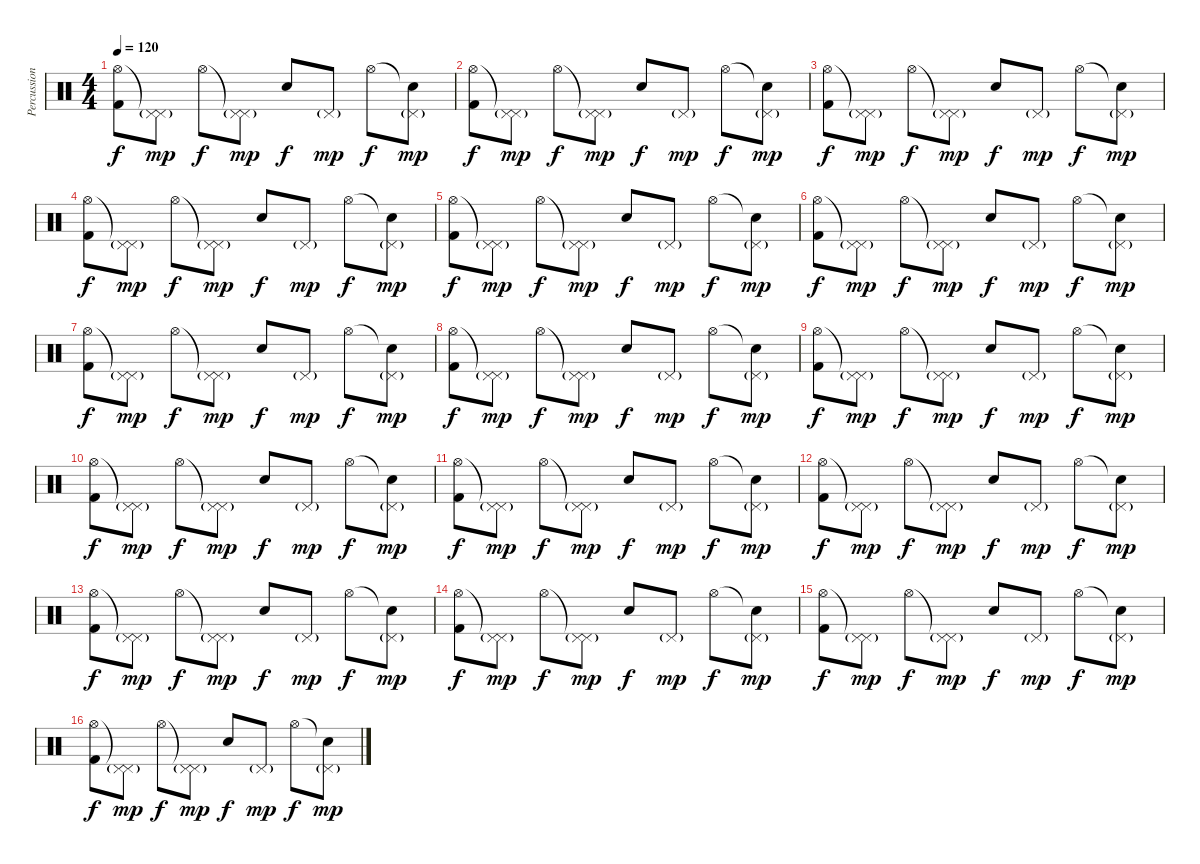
\track ("Percussion" "Percussion") {instrument percussion}
\staff {score}
\articulation defaults
\ts (4 4)
\tempo 120
\clef neutral
\ks c
("Hi-Hat (open)" "Kick (hit) 2").8{dy f} ("Pedal Hi-Hat (hit)"{t} "Pedal Hi-Hat (hit)"{g}).8{dy mp} "Hi-Hat (open)".8{dy f} ("Pedal Hi-Hat (hit)"{t} "Pedal Hi-Hat (hit)"{g}).8{dy mp} "Snare (hit) 2".8{dy f} "Pedal Hi-Hat (hit)"{g}.8{dy mp} "Hi-Hat (open)".8{dy f} ("Snare (hit)"{t} "Pedal Hi-Hat (hit)"{g}).8{dy mp} |
("Hi-Hat (open)" "Kick (hit) 2").8{dy f} ("Pedal Hi-Hat (hit)"{t} "Pedal Hi-Hat (hit)"{g}).8{dy mp} "Hi-Hat (open)".8{dy f} ("Pedal Hi-Hat (hit)"{t} "Pedal Hi-Hat (hit)"{g}).8{dy mp} "Snare (hit) 2".8{dy f} "Pedal Hi-Hat (hit)"{g}.8{dy mp} "Hi-Hat (open)".8{dy f} ("Snare (hit)"{t} "Pedal Hi-Hat (hit)"{g}).8{dy mp} |
("Hi-Hat (open)" "Kick (hit) 2").8{dy f} ("Pedal Hi-Hat (hit)"{t} "Pedal Hi-Hat (hit)"{g}).8{dy mp} "Hi-Hat (open)".8{dy f} ("Pedal Hi-Hat (hit)"{t} "Pedal Hi-Hat (hit)"{g}).8{dy mp} "Snare (hit) 2".8{dy f} "Pedal Hi-Hat (hit)"{g}.8{dy mp} "Hi-Hat (open)".8{dy f} ("Snare (hit)"{t} "Pedal Hi-Hat (hit)"{g}).8{dy mp} |
("Hi-Hat (open)" "Kick (hit) 2").8{dy f} ("Pedal Hi-Hat (hit)"{t} "Pedal Hi-Hat (hit)"{g}).8{dy mp} "Hi-Hat (open)".8{dy f} ("Pedal Hi-Hat (hit)"{t} "Pedal Hi-Hat (hit)"{g}).8{dy mp} "Snare (hit) 2".8{dy f} "Pedal Hi-Hat (hit)"{g}.8{dy mp} "Hi-Hat (open)".8{dy f} ("Snare (hit)"{t} "Pedal Hi-Hat (hit)"{g}).8{dy mp} |
("Hi-Hat (open)" "Kick (hit) 2").8{dy f} ("Pedal Hi-Hat (hit)"{t} "Pedal Hi-Hat (hit)"{g}).8{dy mp} "Hi-Hat (open)".8{dy f} ("Pedal Hi-Hat (hit)"{t} "Pedal Hi-Hat (hit)"{g}).8{dy mp} "Snare (hit) 2".8{dy f} "Pedal Hi-Hat (hit)"{g}.8{dy mp} "Hi-Hat (open)".8{dy f} ("Snare (hit)"{t} "Pedal Hi-Hat (hit)"{g}).8{dy mp} |
("Hi-Hat (open)" "Kick (hit) 2").8{dy f} ("Pedal Hi-Hat (hit)"{t} "Pedal Hi-Hat (hit)"{g}).8{dy mp} "Hi-Hat (open)".8{dy f} ("Pedal Hi-Hat (hit)"{t} "Pedal Hi-Hat (hit)"{g}).8{dy mp} "Snare (hit) 2".8{dy f} "Pedal Hi-Hat (hit)"{g}.8{dy mp} "Hi-Hat (open)".8{dy f} ("Snare (hit)"{t} "Pedal Hi-Hat (hit)"{g}).8{dy mp} |
("Hi-Hat (open)" "Kick (hit) 2").8{dy f} ("Pedal Hi-Hat (hit)"{t} "Pedal Hi-Hat (hit)"{g}).8{dy mp} "Hi-Hat (open)".8{dy f} ("Pedal Hi-Hat (hit)"{t} "Pedal Hi-Hat (hit)"{g}).8{dy mp} "Snare (hit) 2".8{dy f} "Pedal Hi-Hat (hit)"{g}.8{dy mp} "Hi-Hat (open)".8{dy f} ("Snare (hit)"{t} "Pedal Hi-Hat (hit)"{g}).8{dy mp} |
("Hi-Hat (open)" "Kick (hit) 2").8{dy f} ("Pedal Hi-Hat (hit)"{t} "Pedal Hi-Hat (hit)"{g}).8{dy mp} "Hi-Hat (open)".8{dy f} ("Pedal Hi-Hat (hit)"{t} "Pedal Hi-Hat (hit)"{g}).8{dy mp} "Snare (hit) 2".8{dy f} "Pedal Hi-Hat (hit)"{g}.8{dy mp} "Hi-Hat (open)".8{dy f} ("Snare (hit)"{t} "Pedal Hi-Hat (hit)"{g}).8{dy mp} |
("Hi-Hat (open)" "Kick (hit) 2").8{dy f} ("Pedal Hi-Hat (hit)"{t} "Pedal Hi-Hat (hit)"{g}).8{dy mp} "Hi-Hat (open)".8{dy f} ("Pedal Hi-Hat (hit)"{t} "Pedal Hi-Hat (hit)"{g}).8{dy mp} "Snare (hit) 2".8{dy f} "Pedal Hi-Hat (hit)"{g}.8{dy mp} "Hi-Hat (open)".8{dy f} ("Snare (hit)"{t} "Pedal Hi-Hat (hit)"{g}).8{dy mp} |
("Hi-Hat (open)" "Kick (hit) 2").8{dy f} ("Pedal Hi-Hat (hit)"{t} "Pedal Hi-Hat (hit)"{g}).8{dy mp} "Hi-Hat (open)".8{dy f} ("Pedal Hi-Hat (hit)"{t} "Pedal Hi-Hat (hit)"{g}).8{dy mp} "Snare (hit) 2".8{dy f} "Pedal Hi-Hat (hit)"{g}.8{dy mp} "Hi-Hat (open)".8{dy f} ("Snare (hit)"{t} "Pedal Hi-Hat (hit)"{g}).8{dy mp} |
("Hi-Hat (open)" "Kick (hit) 2").8{dy f} ("Pedal Hi-Hat (hit)"{t} "Pedal Hi-Hat (hit)"{g}).8{dy mp} "Hi-Hat (open)".8{dy f} ("Pedal Hi-Hat (hit)"{t} "Pedal Hi-Hat (hit)"{g}).8{dy mp} "Snare (hit) 2".8{dy f} "Pedal Hi-Hat (hit)"{g}.8{dy mp} "Hi-Hat (open)".8{dy f} ("Snare (hit)"{t} "Pedal Hi-Hat (hit)"{g}).8{dy mp} |
("Hi-Hat (open)" "Kick (hit) 2").8{dy f volume 11} ("Pedal Hi-Hat (hit)"{t} "Pedal Hi-Hat (hit)"{g}).8{dy mp} "Hi-Hat (open)".8{dy f} ("Pedal Hi-Hat (hit)"{t} "Pedal Hi-Hat (hit)"{g}).8{dy mp} "Snare (hit) 2".8{dy f} "Pedal Hi-Hat (hit)"{g}.8{dy mp} "Hi-Hat (open)".8{dy f} ("Snare (hit)"{t} "Pedal Hi-Hat (hit)"{g}).8{dy mp} |
("Hi-Hat (open)" "Kick (hit) 2").8{dy f} ("Pedal Hi-Hat (hit)"{t} "Pedal Hi-Hat (hit)"{g}).8{dy mp} "Hi-Hat (open)".8{dy f} ("Pedal Hi-Hat (hit)"{t} "Pedal Hi-Hat (hit)"{g}).8{dy mp} "Snare (hit) 2".8{dy f} "Pedal Hi-Hat (hit)"{g}.8{dy mp} "Hi-Hat (open)".8{dy f} ("Snare (hit)"{t} "Pedal Hi-Hat (hit)"{g}).8{dy mp} |
("Hi-Hat (open)" "Kick (hit) 2").8{dy f volume 9} ("Pedal Hi-Hat (hit)"{t} "Pedal Hi-Hat (hit)"{g}).8{dy mp} "Hi-Hat (open)".8{dy f} ("Pedal Hi-Hat (hit)"{t} "Pedal Hi-Hat (hit)"{g}).8{dy mp} "Snare (hit) 2".8{dy f} "Pedal Hi-Hat (hit)"{g}.8{dy mp} "Hi-Hat (open)".8{dy f} ("Snare (hit)"{t} "Pedal Hi-Hat (hit)"{g}).8{dy mp} |
("Hi-Hat (open)" "Kick (hit) 2").8{dy f volume 7} ("Pedal Hi-Hat (hit)"{t} "Pedal Hi-Hat (hit)"{g}).8{dy mp} "Hi-Hat (open)".8{dy f} ("Pedal Hi-Hat (hit)"{t} "Pedal Hi-Hat (hit)"{g}).8{dy mp} "Snare (hit) 2".8{dy f} "Pedal Hi-Hat (hit)"{g}.8{dy mp} "Hi-Hat (open)".8{dy f} ("Snare (hit)"{t} "Pedal Hi-Hat (hit)"{g}).8{dy mp} |
("Hi-Hat (open)" "Kick (hit) 2").8{dy f volume 6} ("Pedal Hi-Hat (hit)"{t} "Pedal Hi-Hat (hit)"{g}).8{dy mp} "Hi-Hat (open)".8{dy f} ("Pedal Hi-Hat (hit)"{t} "Pedal Hi-Hat (hit)"{g}).8{dy mp} "Snare (hit) 2".8{dy f} "Pedal Hi-Hat (hit)"{g}.8{dy mp} "Hi-Hat (open)".8{dy f} ("Snare (hit)"{t} "Pedal Hi-Hat (hit)"{g}).8{dy mp}
